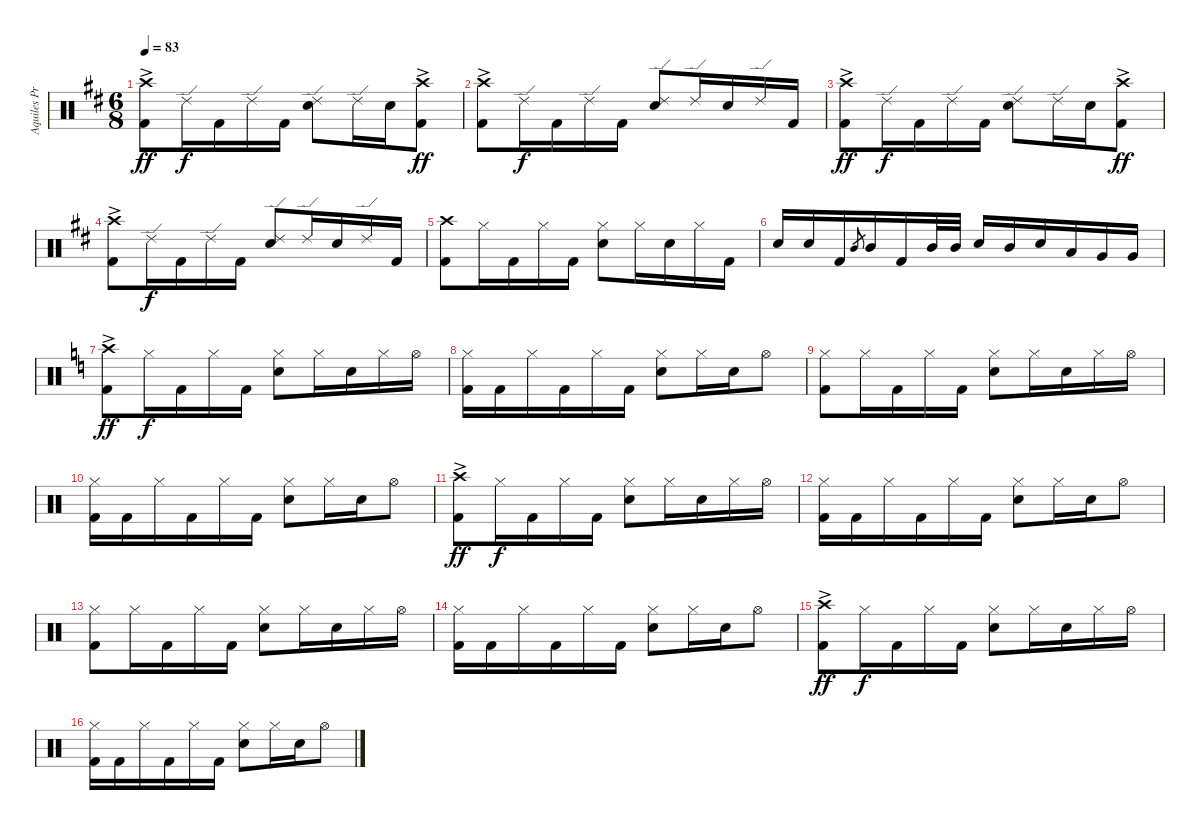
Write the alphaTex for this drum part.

\track ("Aquiles Priester" "Aquiles Pr") {instrument percussion}
\staff {score}
\articulation defaults
\ts (6 8)
\tempo 83
\clef neutral
\ks d
("Crash high (hit)"{ac} "Kick (hit) 2"{ac}).8{dy ff} "Ride (edge) 2".16{dy f} "Kick (hit) 2".16 "Ride (edge) 2".16 "Kick (hit) 2".16 ("Ride (edge) 2" "Electric Snare (hit)").8 "Ride (edge) 2".16 "Electric Snare (hit)".16 ("Crash high (hit)"{ac} "Kick (hit) 2"{ac}).8{dy ff} |
("Crash high (hit)"{ac} "Kick (hit) 2"{ac}).8 "Ride (edge) 2".16{dy f} "Kick (hit) 2".16 "Ride (edge) 2".16 "Kick (hit) 2".16 ("Ride (edge) 2" "Electric Snare (hit)").8 "Ride (edge) 2".16 "Electric Snare (hit)".16 "Ride (edge) 2".16 "Kick (hit) 2".16 |
("Crash high (hit)"{ac} "Kick (hit) 2"{ac}).8{dy ff} "Ride (edge) 2".16{dy f} "Kick (hit) 2".16 "Ride (edge) 2".16 "Kick (hit) 2".16 ("Ride (edge) 2" "Electric Snare (hit)").8 "Ride (edge) 2".16 "Electric Snare (hit)".16 ("Crash high (hit)"{ac} "Kick (hit) 2"{ac}).8{dy ff} |
("Crash high (hit)"{ac} "Kick (hit) 2"{ac}).8 "Ride (edge) 2".16{dy f} "Kick (hit) 2".16 "Ride (edge) 2".16 "Kick (hit) 2".16 ("Ride (edge) 2" "Electric Snare (hit)").8 "Ride (edge) 2".16 "Electric Snare (hit)".16 "Ride (edge) 2".16 "Kick (hit) 2".16 |
("Crash high (hit)" "Kick (hit) 2").8 "Hi-Hat (closed)".16 "Kick (hit) 2".16 "Hi-Hat (closed)".16 "Kick (hit) 2".16 ("Hi-Hat (closed)" "Electric Snare (hit)").8 "Hi-Hat (closed)".16 "Electric Snare (hit)".16 "Hi-Hat (closed)".16 "Kick (hit) 2".16 |
"Electric Snare (hit)".16 "Electric Snare (hit)".16 "Kick (hit) 2".16 "Mid Tom (hit)".8{gr} "Mid Tom (hit)".16 "Kick (hit) 2".16 "Mid Tom (hit)".32 "Mid Tom (hit)".32 "Electric Snare (hit)".16 "Mid Tom (hit)".16 "Electric Snare (hit)".16 "Low Tom (hit)".16 "Very Low Tom (hit)".16 "Very Low Tom (hit)".16 |
\ks c
("Crash high (hit)"{ac} "Kick (hit) 2"{ac}).8{dy ff} "Hi-Hat (closed)".16{dy f} "Kick (hit) 2".16 "Hi-Hat (closed)".16 "Kick (hit) 2".16 ("Hi-Hat (closed)" "Electric Snare (hit)").8 "Hi-Hat (closed)".16 "Electric Snare (hit)".16 "Hi-Hat (closed)".16 "Hi-Hat (open)".16 |
("Hi-Hat (closed)" "Kick (hit) 2").16 "Kick (hit) 2".16 "Hi-Hat (closed)".16 "Kick (hit) 2".16 "Hi-Hat (closed)".16 "Kick (hit) 2".16 ("Hi-Hat (closed)" "Electric Snare (hit)").8 "Hi-Hat (closed)".16 "Electric Snare (hit)".16 "Hi-Hat (open)".8 |
("Hi-Hat (closed)" "Kick (hit) 2").8 "Hi-Hat (closed)".16 "Kick (hit) 2".16 "Hi-Hat (closed)".16 "Kick (hit) 2".16 ("Hi-Hat (closed)" "Electric Snare (hit)").8 "Hi-Hat (closed)".16 "Electric Snare (hit)".16 "Hi-Hat (closed)".16 "Hi-Hat (open)".16 |
("Hi-Hat (closed)" "Kick (hit) 2").16 "Kick (hit) 2".16 "Hi-Hat (closed)".16 "Kick (hit) 2".16 "Hi-Hat (closed)".16 "Kick (hit) 2".16 ("Hi-Hat (closed)" "Electric Snare (hit)").8 "Hi-Hat (closed)".16 "Electric Snare (hit)".16 "Hi-Hat (open)".8 |
("Crash high (hit)"{ac} "Kick (hit) 2"{ac}).8{dy ff} "Hi-Hat (closed)".16{dy f} "Kick (hit) 2".16 "Hi-Hat (closed)".16 "Kick (hit) 2".16 ("Hi-Hat (closed)" "Electric Snare (hit)").8 "Hi-Hat (closed)".16 "Electric Snare (hit)".16 "Hi-Hat (closed)".16 "Hi-Hat (open)".16 |
("Hi-Hat (closed)" "Kick (hit) 2").16 "Kick (hit) 2".16 "Hi-Hat (closed)".16 "Kick (hit) 2".16 "Hi-Hat (closed)".16 "Kick (hit) 2".16 ("Hi-Hat (closed)" "Electric Snare (hit)").8 "Hi-Hat (closed)".16 "Electric Snare (hit)".16 "Hi-Hat (open)".8 |
("Hi-Hat (closed)" "Kick (hit) 2").8 "Hi-Hat (closed)".16 "Kick (hit) 2".16 "Hi-Hat (closed)".16 "Kick (hit) 2".16 ("Hi-Hat (closed)" "Electric Snare (hit)").8 "Hi-Hat (closed)".16 "Electric Snare (hit)".16 "Hi-Hat (closed)".16 "Hi-Hat (open)".16 |
("Hi-Hat (closed)" "Kick (hit) 2").16 "Kick (hit) 2".16 "Hi-Hat (closed)".16 "Kick (hit) 2".16 "Hi-Hat (closed)".16 "Kick (hit) 2".16 ("Hi-Hat (closed)" "Electric Snare (hit)").8 "Hi-Hat (closed)".16 "Electric Snare (hit)".16 "Hi-Hat (open)".8 |
("Crash high (hit)"{ac} "Kick (hit) 2"{ac}).8{dy ff} "Hi-Hat (closed)".16{dy f} "Kick (hit) 2".16 "Hi-Hat (closed)".16 "Kick (hit) 2".16 ("Hi-Hat (closed)" "Electric Snare (hit)").8 "Hi-Hat (closed)".16 "Electric Snare (hit)".16 "Hi-Hat (closed)".16 "Hi-Hat (open)".16 |
("Hi-Hat (closed)" "Kick (hit) 2").16 "Kick (hit) 2".16 "Hi-Hat (closed)".16 "Kick (hit) 2".16 "Hi-Hat (closed)".16 "Kick (hit) 2".16 ("Hi-Hat (closed)" "Electric Snare (hit)").8 "Hi-Hat (closed)".16 "Electric Snare (hit)".16 "Hi-Hat (open)".8
